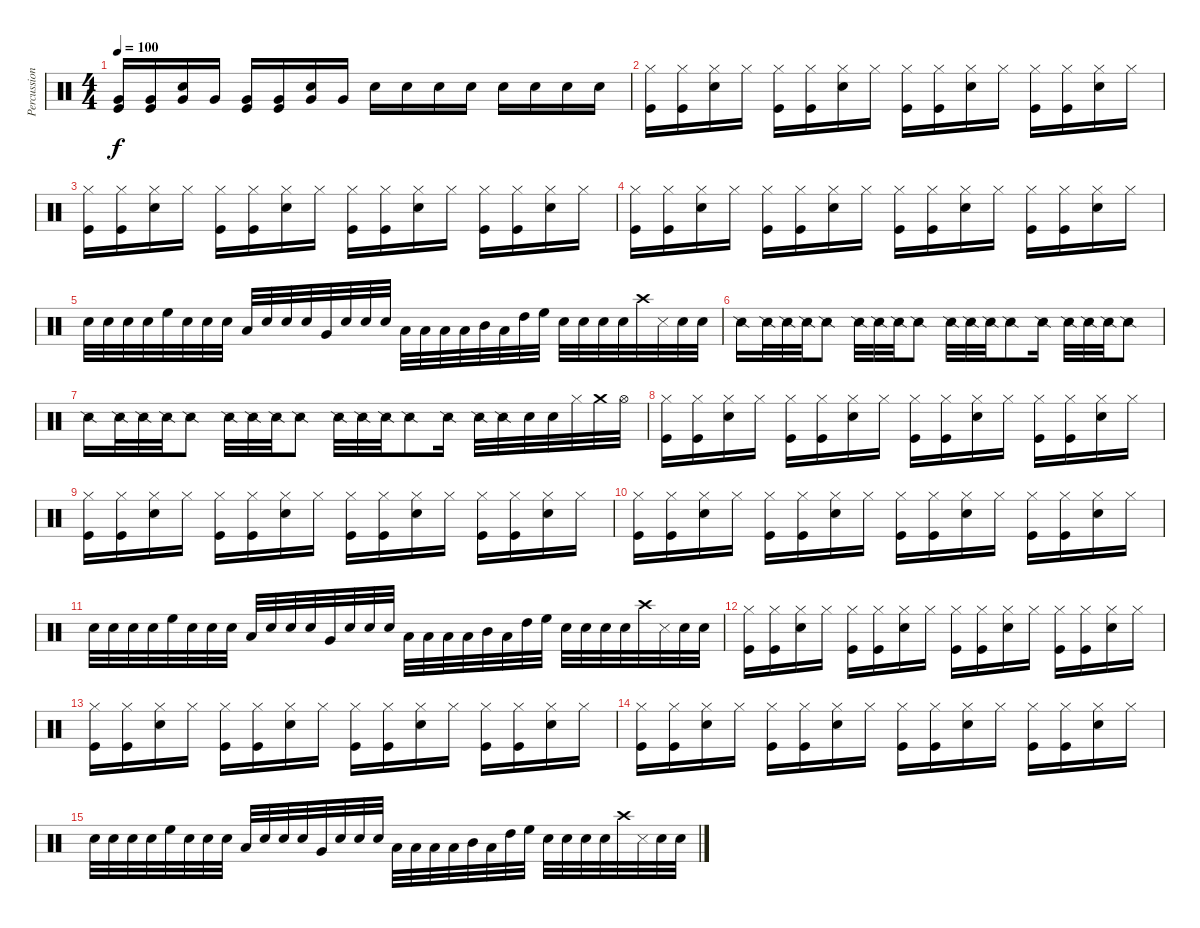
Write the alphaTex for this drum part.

\track ("Percussion" "Percussion") {instrument percussion}
\staff {score}
\articulation defaults
\ts (4 4)
\tempo 100
\clef neutral
\ks c
("Very Low Tom (hit)" "Kick (hit)").16{dy f} ("Very Low Tom (hit)" "Kick (hit)").16 ("Very Low Tom (hit)" "Snare (hit) 2").16 "Very Low Tom (hit)".16 ("Very Low Tom (hit)" "Kick (hit)").16 ("Very Low Tom (hit)" "Kick (hit)").16 ("Very Low Tom (hit)" "Snare (hit) 2").16 "Very Low Tom (hit)".16 "Snare (hit) 2".16 "Snare (hit) 2".16 "Snare (hit) 2".16 "Snare (hit) 2".16 "Snare (hit) 2".16 "Snare (hit) 2".16 "Snare (hit) 2".16 "Snare (hit) 2".16 |
("Hi-Hat (closed)" "Kick (hit)").16 ("Hi-Hat (closed)" "Kick (hit)").16 ("Hi-Hat (closed)" "Snare (hit) 2").16 "Hi-Hat (closed)".16 ("Hi-Hat (closed)" "Kick (hit)").16 ("Hi-Hat (closed)" "Kick (hit)").16 ("Hi-Hat (closed)" "Snare (hit) 2").16 "Hi-Hat (closed)".16 ("Hi-Hat (closed)" "Kick (hit)").16 ("Hi-Hat (closed)" "Kick (hit)").16 ("Hi-Hat (closed)" "Snare (hit) 2").16 "Hi-Hat (closed)".16 ("Hi-Hat (closed)" "Kick (hit)").16 ("Hi-Hat (closed)" "Kick (hit)").16 ("Hi-Hat (closed)" "Snare (hit) 2").16 "Hi-Hat (closed)".16 |
("Hi-Hat (closed)" "Kick (hit)").16 ("Hi-Hat (closed)" "Kick (hit)").16 ("Hi-Hat (closed)" "Snare (hit) 2").16 "Hi-Hat (closed)".16 ("Hi-Hat (closed)" "Kick (hit)").16 ("Hi-Hat (closed)" "Kick (hit)").16 ("Hi-Hat (closed)" "Snare (hit) 2").16 "Hi-Hat (closed)".16 ("Hi-Hat (closed)" "Kick (hit)").16 ("Hi-Hat (closed)" "Kick (hit)").16 ("Hi-Hat (closed)" "Snare (hit) 2").16 "Hi-Hat (closed)".16 ("Hi-Hat (closed)" "Kick (hit)").16 ("Hi-Hat (closed)" "Kick (hit)").16 ("Hi-Hat (closed)" "Snare (hit) 2").16 "Hi-Hat (closed)".16 |
("Hi-Hat (closed)" "Kick (hit)").16 ("Hi-Hat (closed)" "Kick (hit)").16 ("Hi-Hat (closed)" "Snare (hit) 2").16 "Hi-Hat (closed)".16 ("Hi-Hat (closed)" "Kick (hit)").16 ("Hi-Hat (closed)" "Kick (hit)").16 ("Hi-Hat (closed)" "Snare (hit) 2").16 "Hi-Hat (closed)".16 ("Hi-Hat (closed)" "Kick (hit)").16 ("Hi-Hat (closed)" "Kick (hit)").16 ("Hi-Hat (closed)" "Snare (hit) 2").16 "Hi-Hat (closed)".16 ("Hi-Hat (closed)" "Kick (hit)").16 ("Hi-Hat (closed)" "Kick (hit)").16 ("Hi-Hat (closed)" "Snare (hit) 2").16 "Hi-Hat (closed)".16 |
"Snare (hit) 2".32 "Snare (hit) 2".32 "Snare (hit) 2".32 "Snare (hit) 2".32 "High Floor Tom (hit)".32 "Snare (hit) 2".32 "Snare (hit) 2".32 "Snare (hit) 2".32 "Low Tom (hit)".32 "Snare (hit) 2".32 "Snare (hit) 2".32 "Snare (hit) 2".32 "Very Low Tom (hit)".32 "Snare (hit) 2".32 "Snare (hit) 2".32 "Snare (hit) 2".32 "Low Floor Tom (hit)".32 "Low Floor Tom (hit)".32 "Low Floor Tom (hit)".32 "Low Floor Tom (hit)".32 "Mid Tom (hit)".32 "Low Tom (hit)".32 "High Tom (hit)".32 "High Floor Tom (hit)".32 "Snare (hit) 2".32 "Snare (hit) 2".32 "Snare (hit) 2".32 "Snare (hit) 2".32 "Crash high (hit)".32 "Snare (side stick) 3".32 "Snare (hit) 2".32 "Snare (hit) 2".32 |
"Snare (side stick) 2".16 "Snare (side stick) 2".32 "Snare (side stick) 2".32 "Snare (side stick) 2".32 "Snare (side stick) 2".8 "Snare (side stick) 2".32 "Snare (side stick) 2".32 "Snare (side stick) 2".32 "Snare (side stick) 2".8 "Snare (side stick) 2".32 "Snare (side stick) 2".32 "Snare (side stick) 2".32 "Snare (side stick) 2".8 "Snare (side stick) 2".16 "Snare (side stick) 2".32 "Snare (side stick) 2".32 "Snare (side stick) 2".32 "Snare (side stick) 2".8 |
"Snare (side stick) 2".16 "Snare (side stick) 2".32 "Snare (side stick) 2".32 "Snare (side stick) 2".32 "Snare (side stick) 2".8 "Snare (side stick) 2".32 "Snare (side stick) 2".32 "Snare (side stick) 2".32 "Snare (side stick) 2".8 "Snare (side stick) 2".32 "Snare (side stick) 2".32 "Snare (side stick) 2".32 "Snare (side stick) 2".8 "Snare (side stick) 2".16 "Snare (side stick) 2".32 "Snare (side stick) 2".32 "Electric Snare (hit)".32 "Electric Snare (hit)".32 "Hi-Hat (closed)".32 "Crash medium (hit)".32 "Hi-Hat (open)".32 |
("Hi-Hat (closed)" "Kick (hit)").16 ("Hi-Hat (closed)" "Kick (hit)").16 ("Hi-Hat (closed)" "Snare (hit) 2").16 "Hi-Hat (closed)".16 ("Hi-Hat (closed)" "Kick (hit)").16 ("Hi-Hat (closed)" "Kick (hit)").16 ("Hi-Hat (closed)" "Snare (hit) 2").16 "Hi-Hat (closed)".16 ("Hi-Hat (closed)" "Kick (hit)").16 ("Hi-Hat (closed)" "Kick (hit)").16 ("Hi-Hat (closed)" "Snare (hit) 2").16 "Hi-Hat (closed)".16 ("Hi-Hat (closed)" "Kick (hit)").16 ("Hi-Hat (closed)" "Kick (hit)").16 ("Hi-Hat (closed)" "Snare (hit) 2").16 "Hi-Hat (closed)".16 |
("Hi-Hat (closed)" "Kick (hit)").16 ("Hi-Hat (closed)" "Kick (hit)").16 ("Hi-Hat (closed)" "Snare (hit) 2").16 "Hi-Hat (closed)".16 ("Hi-Hat (closed)" "Kick (hit)").16 ("Hi-Hat (closed)" "Kick (hit)").16 ("Hi-Hat (closed)" "Snare (hit) 2").16 "Hi-Hat (closed)".16 ("Hi-Hat (closed)" "Kick (hit)").16 ("Hi-Hat (closed)" "Kick (hit)").16 ("Hi-Hat (closed)" "Snare (hit) 2").16 "Hi-Hat (closed)".16 ("Hi-Hat (closed)" "Kick (hit)").16 ("Hi-Hat (closed)" "Kick (hit)").16 ("Hi-Hat (closed)" "Snare (hit) 2").16 "Hi-Hat (closed)".16 |
("Hi-Hat (closed)" "Kick (hit)").16 ("Hi-Hat (closed)" "Kick (hit)").16 ("Hi-Hat (closed)" "Snare (hit) 2").16 "Hi-Hat (closed)".16 ("Hi-Hat (closed)" "Kick (hit)").16 ("Hi-Hat (closed)" "Kick (hit)").16 ("Hi-Hat (closed)" "Snare (hit) 2").16 "Hi-Hat (closed)".16 ("Hi-Hat (closed)" "Kick (hit)").16 ("Hi-Hat (closed)" "Kick (hit)").16 ("Hi-Hat (closed)" "Snare (hit) 2").16 "Hi-Hat (closed)".16 ("Hi-Hat (closed)" "Kick (hit)").16 ("Hi-Hat (closed)" "Kick (hit)").16 ("Hi-Hat (closed)" "Snare (hit) 2").16 "Hi-Hat (closed)".16 |
"Snare (hit) 2".32 "Snare (hit) 2".32 "Snare (hit) 2".32 "Snare (hit) 2".32 "High Floor Tom (hit)".32 "Snare (hit) 2".32 "Snare (hit) 2".32 "Snare (hit) 2".32 "Low Tom (hit)".32 "Snare (hit) 2".32 "Snare (hit) 2".32 "Snare (hit) 2".32 "Very Low Tom (hit)".32 "Snare (hit) 2".32 "Snare (hit) 2".32 "Snare (hit) 2".32 "Low Floor Tom (hit)".32 "Low Floor Tom (hit)".32 "Low Floor Tom (hit)".32 "Low Floor Tom (hit)".32 "Mid Tom (hit)".32 "Low Tom (hit)".32 "High Tom (hit)".32 "High Floor Tom (hit)".32 "Snare (hit) 2".32 "Snare (hit) 2".32 "Snare (hit) 2".32 "Snare (hit) 2".32 "Crash high (hit)".32 "Snare (side stick) 3".32 "Snare (hit) 2".32 "Snare (hit) 2".32 |
("Hi-Hat (closed)" "Kick (hit)").16 ("Hi-Hat (closed)" "Kick (hit)").16 ("Hi-Hat (closed)" "Snare (hit) 2").16 "Hi-Hat (closed)".16 ("Hi-Hat (closed)" "Kick (hit)").16 ("Hi-Hat (closed)" "Kick (hit)").16 ("Hi-Hat (closed)" "Snare (hit) 2").16 "Hi-Hat (closed)".16 ("Hi-Hat (closed)" "Kick (hit)").16 ("Hi-Hat (closed)" "Kick (hit)").16 ("Hi-Hat (closed)" "Snare (hit) 2").16 "Hi-Hat (closed)".16 ("Hi-Hat (closed)" "Kick (hit)").16 ("Hi-Hat (closed)" "Kick (hit)").16 ("Hi-Hat (closed)" "Snare (hit) 2").16 "Hi-Hat (closed)".16 |
("Hi-Hat (closed)" "Kick (hit)").16 ("Hi-Hat (closed)" "Kick (hit)").16 ("Hi-Hat (closed)" "Snare (hit) 2").16 "Hi-Hat (closed)".16 ("Hi-Hat (closed)" "Kick (hit)").16 ("Hi-Hat (closed)" "Kick (hit)").16 ("Hi-Hat (closed)" "Snare (hit) 2").16 "Hi-Hat (closed)".16 ("Hi-Hat (closed)" "Kick (hit)").16 ("Hi-Hat (closed)" "Kick (hit)").16 ("Hi-Hat (closed)" "Snare (hit) 2").16 "Hi-Hat (closed)".16 ("Hi-Hat (closed)" "Kick (hit)").16 ("Hi-Hat (closed)" "Kick (hit)").16 ("Hi-Hat (closed)" "Snare (hit) 2").16 "Hi-Hat (closed)".16 |
("Hi-Hat (closed)" "Kick (hit)").16 ("Hi-Hat (closed)" "Kick (hit)").16 ("Hi-Hat (closed)" "Snare (hit) 2").16 "Hi-Hat (closed)".16 ("Hi-Hat (closed)" "Kick (hit)").16 ("Hi-Hat (closed)" "Kick (hit)").16 ("Hi-Hat (closed)" "Snare (hit) 2").16 "Hi-Hat (closed)".16 ("Hi-Hat (closed)" "Kick (hit)").16 ("Hi-Hat (closed)" "Kick (hit)").16 ("Hi-Hat (closed)" "Snare (hit) 2").16 "Hi-Hat (closed)".16 ("Hi-Hat (closed)" "Kick (hit)").16 ("Hi-Hat (closed)" "Kick (hit)").16 ("Hi-Hat (closed)" "Snare (hit) 2").16 "Hi-Hat (closed)".16 |
"Snare (hit) 2".32 "Snare (hit) 2".32 "Snare (hit) 2".32 "Snare (hit) 2".32 "High Floor Tom (hit)".32 "Snare (hit) 2".32 "Snare (hit) 2".32 "Snare (hit) 2".32 "Low Tom (hit)".32 "Snare (hit) 2".32 "Snare (hit) 2".32 "Snare (hit) 2".32 "Very Low Tom (hit)".32 "Snare (hit) 2".32 "Snare (hit) 2".32 "Snare (hit) 2".32 "Low Floor Tom (hit)".32 "Low Floor Tom (hit)".32 "Low Floor Tom (hit)".32 "Low Floor Tom (hit)".32 "Mid Tom (hit)".32 "Low Tom (hit)".32 "High Tom (hit)".32 "High Floor Tom (hit)".32 "Snare (hit) 2".32 "Snare (hit) 2".32 "Snare (hit) 2".32 "Snare (hit) 2".32 "Crash high (hit)".32 "Snare (side stick) 3".32 "Snare (hit) 2".32 "Snare (hit) 2".32
